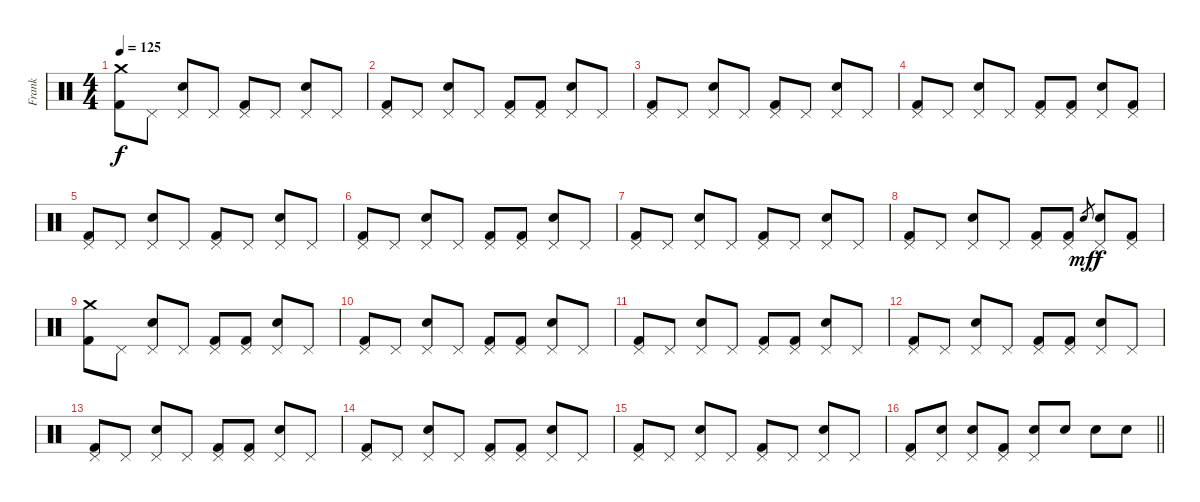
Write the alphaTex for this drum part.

\track ("Frank" "Frank") {instrument percussion}
\staff {score}
\articulation defaults
\ts (4 4)
\tempo 125
\clef neutral
\ks c
("Crash medium (hit)" "Kick (hit) 2").8{dy f} "Pedal Hi-Hat (hit)".8 ("Pedal Hi-Hat (hit)" "Electric Snare (hit)").8 "Pedal Hi-Hat (hit)".8 ("Pedal Hi-Hat (hit)" "Kick (hit) 2").8 "Pedal Hi-Hat (hit)".8 ("Pedal Hi-Hat (hit)" "Electric Snare (hit)").8 "Pedal Hi-Hat (hit)".8 |
("Pedal Hi-Hat (hit)" "Kick (hit) 2").8 "Pedal Hi-Hat (hit)".8 ("Pedal Hi-Hat (hit)" "Electric Snare (hit)").8 "Pedal Hi-Hat (hit)".8 ("Pedal Hi-Hat (hit)" "Kick (hit) 2").8 ("Pedal Hi-Hat (hit)" "Kick (hit) 2").8 ("Pedal Hi-Hat (hit)" "Electric Snare (hit)").8 "Pedal Hi-Hat (hit)".8 |
("Pedal Hi-Hat (hit)" "Kick (hit) 2").8 "Pedal Hi-Hat (hit)".8 ("Pedal Hi-Hat (hit)" "Electric Snare (hit)").8 "Pedal Hi-Hat (hit)".8 ("Pedal Hi-Hat (hit)" "Kick (hit) 2").8 "Pedal Hi-Hat (hit)".8 ("Pedal Hi-Hat (hit)" "Electric Snare (hit)").8 "Pedal Hi-Hat (hit)".8 |
("Pedal Hi-Hat (hit)" "Kick (hit) 2").8 "Pedal Hi-Hat (hit)".8 ("Pedal Hi-Hat (hit)" "Electric Snare (hit)").8 "Pedal Hi-Hat (hit)".8 ("Pedal Hi-Hat (hit)" "Kick (hit) 2").8 ("Pedal Hi-Hat (hit)" "Kick (hit) 2").8 ("Pedal Hi-Hat (hit)" "Electric Snare (hit)").8 ("Pedal Hi-Hat (hit)" "Kick (hit) 2").8 |
("Pedal Hi-Hat (hit)" "Kick (hit) 2").8 "Pedal Hi-Hat (hit)".8 ("Pedal Hi-Hat (hit)" "Electric Snare (hit)").8 "Pedal Hi-Hat (hit)".8 ("Pedal Hi-Hat (hit)" "Kick (hit) 2").8 "Pedal Hi-Hat (hit)".8 ("Pedal Hi-Hat (hit)" "Electric Snare (hit)").8 "Pedal Hi-Hat (hit)".8 |
("Pedal Hi-Hat (hit)" "Kick (hit) 2").8 "Pedal Hi-Hat (hit)".8 ("Pedal Hi-Hat (hit)" "Electric Snare (hit)").8 "Pedal Hi-Hat (hit)".8 ("Pedal Hi-Hat (hit)" "Kick (hit) 2").8 ("Pedal Hi-Hat (hit)" "Kick (hit) 2").8 ("Pedal Hi-Hat (hit)" "Electric Snare (hit)").8 "Pedal Hi-Hat (hit)".8 |
("Pedal Hi-Hat (hit)" "Kick (hit) 2").8 "Pedal Hi-Hat (hit)".8 ("Pedal Hi-Hat (hit)" "Electric Snare (hit)").8 "Pedal Hi-Hat (hit)".8 ("Pedal Hi-Hat (hit)" "Kick (hit) 2").8 "Pedal Hi-Hat (hit)".8 ("Pedal Hi-Hat (hit)" "Electric Snare (hit)").8 "Pedal Hi-Hat (hit)".8 |
("Pedal Hi-Hat (hit)" "Kick (hit) 2").8 "Pedal Hi-Hat (hit)".8 ("Pedal Hi-Hat (hit)" "Electric Snare (hit)").8 "Pedal Hi-Hat (hit)".8 ("Pedal Hi-Hat (hit)" "Kick (hit) 2").8 ("Pedal Hi-Hat (hit)" "Kick (hit) 2").8 "Electric Snare (hit)".8{gr dy mf} ("Pedal Hi-Hat (hit)" "Electric Snare (hit)").8{dy f} ("Pedal Hi-Hat (hit)" "Kick (hit) 2").8 |
("Crash medium (hit)" "Kick (hit) 2").8 "Pedal Hi-Hat (hit)".8 ("Pedal Hi-Hat (hit)" "Electric Snare (hit)").8 "Pedal Hi-Hat (hit)".8 ("Pedal Hi-Hat (hit)" "Kick (hit) 2").8 ("Pedal Hi-Hat (hit)" "Kick (hit) 2").8 ("Pedal Hi-Hat (hit)" "Electric Snare (hit)").8 "Pedal Hi-Hat (hit)".8 |
("Pedal Hi-Hat (hit)" "Kick (hit) 2").8 "Pedal Hi-Hat (hit)".8 ("Pedal Hi-Hat (hit)" "Electric Snare (hit)").8 "Pedal Hi-Hat (hit)".8 ("Pedal Hi-Hat (hit)" "Kick (hit) 2").8 ("Pedal Hi-Hat (hit)" "Kick (hit) 2").8 ("Pedal Hi-Hat (hit)" "Electric Snare (hit)").8 "Pedal Hi-Hat (hit)".8 |
("Pedal Hi-Hat (hit)" "Kick (hit) 2").8 "Pedal Hi-Hat (hit)".8 ("Pedal Hi-Hat (hit)" "Electric Snare (hit)").8 "Pedal Hi-Hat (hit)".8 ("Pedal Hi-Hat (hit)" "Kick (hit) 2").8 ("Pedal Hi-Hat (hit)" "Kick (hit) 2").8 ("Pedal Hi-Hat (hit)" "Electric Snare (hit)").8 "Pedal Hi-Hat (hit)".8 |
("Pedal Hi-Hat (hit)" "Kick (hit) 2").8 "Pedal Hi-Hat (hit)".8 ("Pedal Hi-Hat (hit)" "Electric Snare (hit)").8 "Pedal Hi-Hat (hit)".8 ("Pedal Hi-Hat (hit)" "Kick (hit) 2").8 ("Pedal Hi-Hat (hit)" "Kick (hit) 2").8 ("Pedal Hi-Hat (hit)" "Electric Snare (hit)").8 "Pedal Hi-Hat (hit)".8 |
("Pedal Hi-Hat (hit)" "Kick (hit) 2").8 "Pedal Hi-Hat (hit)".8 ("Pedal Hi-Hat (hit)" "Electric Snare (hit)").8 "Pedal Hi-Hat (hit)".8 ("Pedal Hi-Hat (hit)" "Kick (hit) 2").8 ("Pedal Hi-Hat (hit)" "Kick (hit) 2").8 ("Pedal Hi-Hat (hit)" "Electric Snare (hit)").8 "Pedal Hi-Hat (hit)".8 |
("Pedal Hi-Hat (hit)" "Kick (hit) 2").8 "Pedal Hi-Hat (hit)".8 ("Pedal Hi-Hat (hit)" "Electric Snare (hit)").8 "Pedal Hi-Hat (hit)".8 ("Pedal Hi-Hat (hit)" "Kick (hit) 2").8 ("Pedal Hi-Hat (hit)" "Kick (hit) 2").8 ("Pedal Hi-Hat (hit)" "Electric Snare (hit)").8 "Pedal Hi-Hat (hit)".8 |
("Pedal Hi-Hat (hit)" "Kick (hit) 2").8 "Pedal Hi-Hat (hit)".8 ("Pedal Hi-Hat (hit)" "Electric Snare (hit)").8 "Pedal Hi-Hat (hit)".8 ("Pedal Hi-Hat (hit)" "Kick (hit) 2").8 "Pedal Hi-Hat (hit)".8 ("Pedal Hi-Hat (hit)" "Electric Snare (hit)").8 "Pedal Hi-Hat (hit)".8 |
\barLineRight lightlight
("Pedal Hi-Hat (hit)" "Kick (hit) 2").8 ("Pedal Hi-Hat (hit)" "Electric Snare (hit)").8 ("Pedal Hi-Hat (hit)" "Electric Snare (hit)").8 ("Pedal Hi-Hat (hit)" "Kick (hit) 2").8 ("Pedal Hi-Hat (hit)" "Electric Snare (hit)").8 "Electric Snare (hit)".8 "Electric Snare (hit)".8 "Electric Snare (hit)".8
